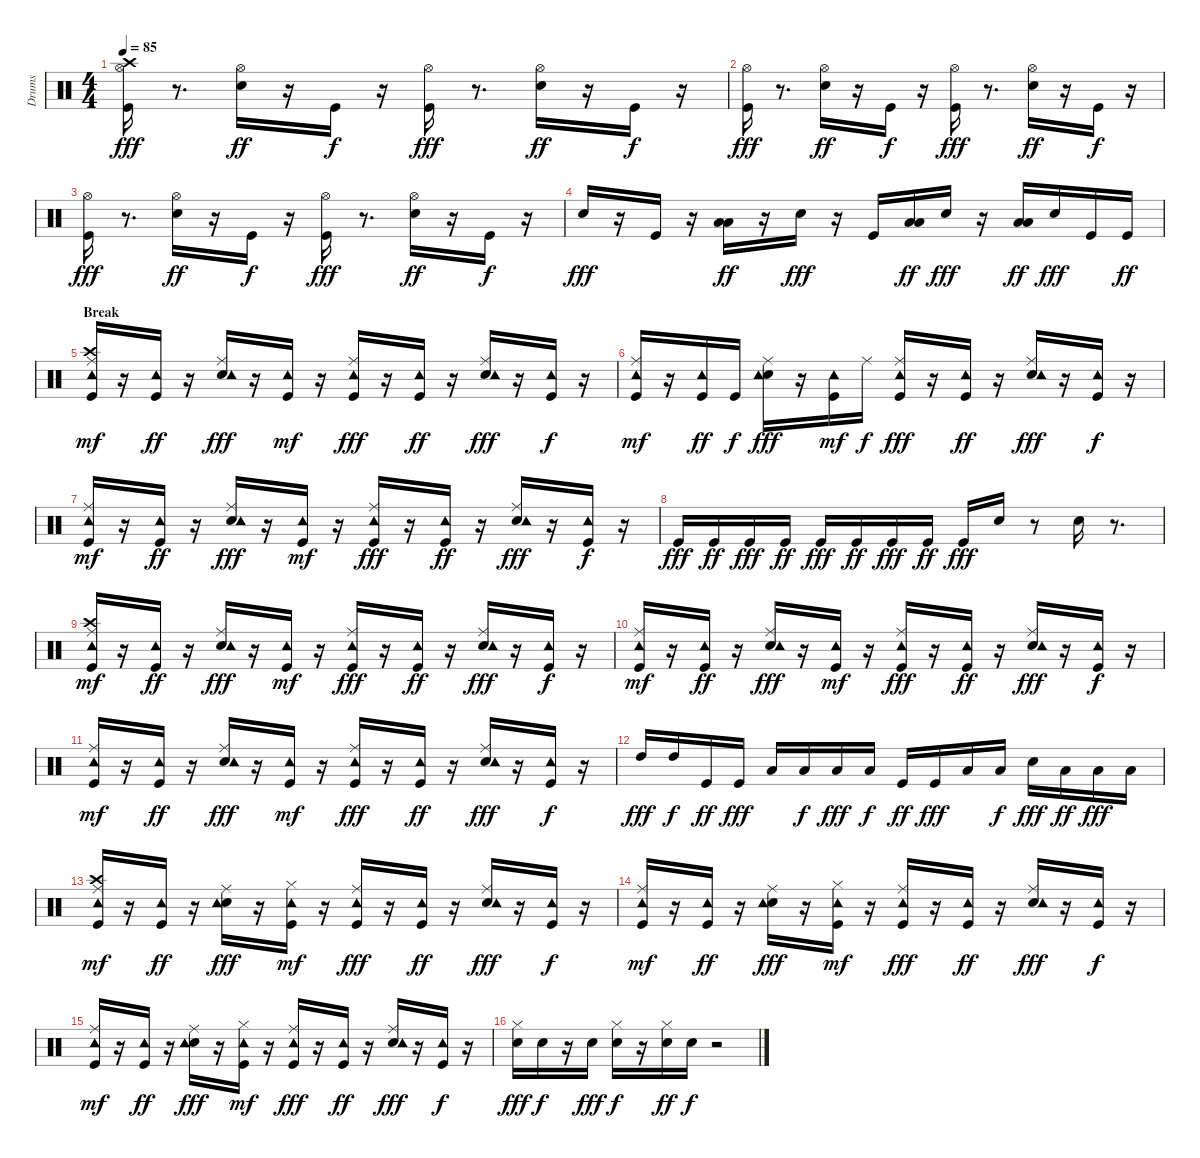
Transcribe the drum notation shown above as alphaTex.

\track ("Drums    " "Drums    ") {instrument percussion}
\staff {score}
\articulation defaults
\ts (4 4)
\tempo 85
\clef neutral
\ks c
("Kick (hit)" "Hi-Hat (open)" "Crash high (hit)").16{dy fff} r.8{d} ("Snare (hit) 2" "Hi-Hat (open)").16{dy ff} r.16 "Kick (hit)".16{dy f} r.16 ("Kick (hit)" "Hi-Hat (open)").16{dy fff} r.8{d} ("Snare (hit) 2" "Hi-Hat (open)").16{dy ff} r.16 "Kick (hit)".16{dy f} r.16 |
("Kick (hit)" "Hi-Hat (open)").16{dy fff} r.8{d} ("Snare (hit) 2" "Hi-Hat (open)").16{dy ff} r.16 "Kick (hit)".16{dy f} r.16 ("Kick (hit)" "Hi-Hat (open)").16{dy fff} r.8{d} ("Snare (hit) 2" "Hi-Hat (open)").16{dy ff} r.16 "Kick (hit)".16{dy f} r.16 |
("Kick (hit)" "Hi-Hat (open)").16{dy fff} r.8{d} ("Snare (hit) 2" "Hi-Hat (open)").16{dy ff} r.16 "Kick (hit)".16{dy f} r.16 ("Kick (hit)" "Hi-Hat (open)").16{dy fff} r.8{d} ("Snare (hit) 2" "Hi-Hat (open)").16{dy ff} r.16 "Kick (hit)".16{dy f} r.16 |
"Snare (hit) 2".16{dy fff} r.16 "Kick (hit)".16 r.16 ("Low Floor Tom (hit)" "Low Tom (hit)").16{dy ff} r.16 "Snare (hit) 2".16{dy fff} r.16 "Kick (hit)".16 ("Low Floor Tom (hit)" "Low Tom (hit)").16{dy ff} "Snare (hit) 2".16{dy fff} r.16 ("Low Floor Tom (hit)" "Low Tom (hit)").16{dy ff} "Snare (hit) 2".16{dy fff} "Kick (hit)".16 "Kick (hit)".16{dy ff} |
\section ("" "Break")
("Kick (hit)" "Ride (middle)" "Crash high (hit)" "Tambourine (hit)").16{dy mf} r.16 ("Kick (hit)" "Tambourine (hit)").16{dy ff} r.16 ("Snare (hit) 2" "Ride (middle)" "Tambourine (hit)").16{dy fff} r.16 ("Kick (hit)" "Tambourine (hit)").16{dy mf} r.16 ("Kick (hit)" "Ride (middle)" "Tambourine (hit)").16{dy fff} r.16 ("Kick (hit)" "Tambourine (hit)").16{dy ff} r.16 ("Snare (hit) 2" "Ride (middle)" "Tambourine (hit)").16{dy fff} r.16 ("Kick (hit)" "Tambourine (hit)").16{dy f} r.16 |
("Kick (hit)" "Ride (middle)" "Tambourine (hit)").16{dy mf} r.16 ("Kick (hit)" "Tambourine (hit)").16{dy ff} "Kick (hit)".16{dy f} ("Snare (hit) 2" "Ride (middle)" "Tambourine (hit)").16{dy fff} r.16 ("Kick (hit)" "Tambourine (hit)").16{dy mf} "Ride (middle)".16{dy f} ("Kick (hit)" "Ride (middle)" "Tambourine (hit)").16{dy fff} r.16 ("Kick (hit)" "Tambourine (hit)").16{dy ff} r.16 ("Snare (hit) 2" "Ride (middle)" "Tambourine (hit)").16{dy fff} r.16 ("Kick (hit)" "Tambourine (hit)").16{dy f} r.16 |
("Kick (hit)" "Ride (middle)" "Tambourine (hit)").16{dy mf} r.16 ("Kick (hit)" "Tambourine (hit)").16{dy ff} r.16 ("Snare (hit) 2" "Ride (middle)" "Tambourine (hit)").16{dy fff} r.16 ("Kick (hit)" "Tambourine (hit)").16{dy mf} r.16 ("Kick (hit)" "Ride (middle)" "Tambourine (hit)").16{dy fff} r.16 ("Kick (hit)" "Tambourine (hit)").16{dy ff} r.16 ("Snare (hit) 2" "Ride (middle)" "Tambourine (hit)").16{dy fff} r.16 ("Kick (hit)" "Tambourine (hit)").16{dy f} r.16 |
"Kick (hit)".16{dy fff} "Kick (hit)".16{dy ff} "Kick (hit)".16{dy fff} "Kick (hit)".16{dy ff} "Kick (hit)".16{dy fff} "Kick (hit)".16{dy ff} "Kick (hit)".16{dy fff} "Kick (hit)".16{dy ff} "Kick (hit)".16{dy fff} "Snare (hit) 2".16 r.8 "Snare (hit) 2".16 r.8{d} |
("Kick (hit)" "Ride (middle)" "Crash high (hit)" "Tambourine (hit)").16{dy mf} r.16 ("Kick (hit)" "Tambourine (hit)").16{dy ff} r.16 ("Snare (hit) 2" "Ride (middle)" "Tambourine (hit)").16{dy fff} r.16 ("Kick (hit)" "Tambourine (hit)").16{dy mf} r.16 ("Kick (hit)" "Ride (middle)" "Tambourine (hit)").16{dy fff} r.16 ("Kick (hit)" "Tambourine (hit)").16{dy ff} r.16 ("Snare (hit) 2" "Ride (middle)" "Tambourine (hit)").16{dy fff} r.16 ("Kick (hit)" "Tambourine (hit)").16{dy f} r.16 |
("Kick (hit)" "Ride (middle)" "Tambourine (hit)").16{dy mf} r.16 ("Kick (hit)" "Tambourine (hit)").16{dy ff} r.16 ("Snare (hit) 2" "Ride (middle)" "Tambourine (hit)").16{dy fff} r.16 ("Kick (hit)" "Tambourine (hit)").16{dy mf} r.16 ("Kick (hit)" "Ride (middle)" "Tambourine (hit)").16{dy fff} r.16 ("Kick (hit)" "Tambourine (hit)").16{dy ff} r.16 ("Snare (hit) 2" "Ride (middle)" "Tambourine (hit)").16{dy fff} r.16 ("Kick (hit)" "Tambourine (hit)").16{dy f} r.16 |
("Kick (hit)" "Ride (middle)" "Tambourine (hit)").16{dy mf} r.16 ("Kick (hit)" "Tambourine (hit)").16{dy ff} r.16 ("Snare (hit) 2" "Ride (middle)" "Tambourine (hit)").16{dy fff} r.16 ("Kick (hit)" "Tambourine (hit)").16{dy mf} r.16 ("Kick (hit)" "Ride (middle)" "Tambourine (hit)").16{dy fff} r.16 ("Kick (hit)" "Tambourine (hit)").16{dy ff} r.16 ("Snare (hit) 2" "Ride (middle)" "Tambourine (hit)").16{dy fff} r.16 ("Kick (hit)" "Tambourine (hit)").16{dy f} r.16 |
"High Tom (hit)".16{dy fff} "High Tom (hit)".16{dy f} "Kick (hit)".16{dy ff} "Kick (hit)".16{dy fff} "Low Tom (hit)".16 "Low Tom (hit)".16{dy f} "Low Tom (hit)".16{dy fff} "Low Tom (hit)".16{dy f} "Kick (hit)".16{dy ff} "Kick (hit)".16{dy fff} "Low Floor Tom (hit)".16 "Low Floor Tom (hit)".16{dy f} "Snare (hit) 2".16{dy fff} "Low Floor Tom (hit)".16{dy ff} "Low Floor Tom (hit)".16{dy fff} "Low Floor Tom (hit)".16 |
("Kick (hit)" "Ride (middle)" "Crash high (hit)" "Tambourine (hit)").16{dy mf} r.16 ("Kick (hit)" "Tambourine (hit)").16{dy ff} r.16 ("Snare (hit) 2" "Ride (middle)" "Tambourine (hit)").16{dy fff} r.16 ("Kick (hit)" "Hi-Hat (closed)" "Tambourine (hit)").16{dy mf} r.16 ("Kick (hit)" "Ride (middle)" "Tambourine (hit)").16{dy fff} r.16 ("Kick (hit)" "Tambourine (hit)").16{dy ff} r.16 ("Snare (hit) 2" "Ride (middle)" "Tambourine (hit)").16{dy fff} r.16 ("Kick (hit)" "Tambourine (hit)").16{dy f} r.16 |
("Kick (hit)" "Ride (middle)" "Tambourine (hit)").16{dy mf} r.16 ("Kick (hit)" "Tambourine (hit)").16{dy ff} r.16 ("Snare (hit) 2" "Ride (middle)" "Tambourine (hit)").16{dy fff} r.16 ("Kick (hit)" "Hi-Hat (closed)" "Tambourine (hit)").16{dy mf} r.16 ("Kick (hit)" "Ride (middle)" "Tambourine (hit)").16{dy fff} r.16 ("Kick (hit)" "Tambourine (hit)").16{dy ff} r.16 ("Snare (hit) 2" "Ride (middle)" "Tambourine (hit)").16{dy fff} r.16 ("Kick (hit)" "Tambourine (hit)").16{dy f} r.16 |
("Kick (hit)" "Ride (middle)" "Tambourine (hit)").16{dy mf} r.16 ("Kick (hit)" "Tambourine (hit)").16{dy ff} r.16 ("Snare (hit) 2" "Ride (middle)" "Tambourine (hit)").16{dy fff} r.16 ("Kick (hit)" "Hi-Hat (closed)" "Tambourine (hit)").16{dy mf} r.16 ("Kick (hit)" "Ride (middle)" "Tambourine (hit)").16{dy fff} r.16 ("Kick (hit)" "Tambourine (hit)").16{dy ff} r.16 ("Snare (hit) 2" "Ride (middle)" "Tambourine (hit)").16{dy fff} r.16 ("Kick (hit)" "Tambourine (hit)").16{dy f} r.16 |
("Snare (hit) 2" "Hi-Hat (closed)").16{dy fff} "Snare (hit) 2".16{dy f} r.16 "Snare (hit) 2".16{dy fff} ("Snare (hit) 2" "Hi-Hat (closed)").16{dy f} r.16 ("Snare (hit) 2" "Hi-Hat (closed)").16{dy ff} "Snare (hit) 2".16{dy f} r.2
